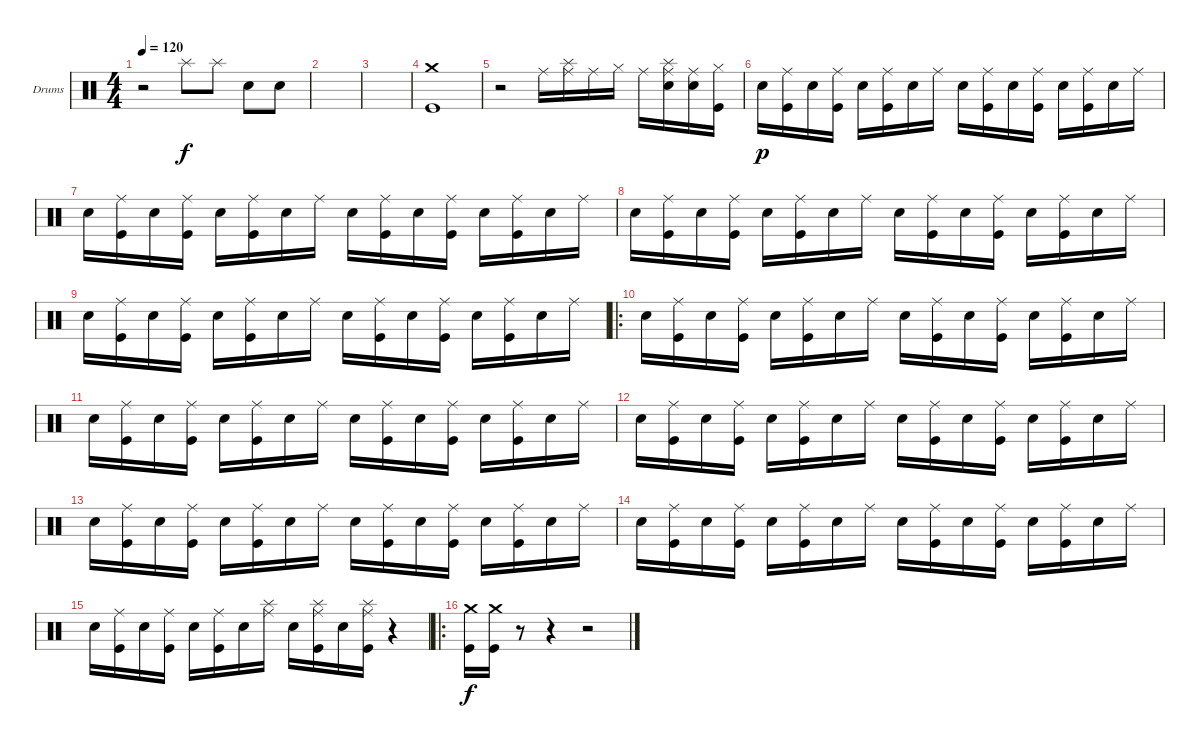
\bracketExtendMode groupsimilarinstruments
\firstSystemTrackNameOrientation horizontal
\otherSystemsTrackNameOrientation horizontal
\track ("Drumkit" "Drums") {instrument percussion}
\staff {score}
\articulation defaults
\ts (4 4)
\tempo 120
\clef neutral
\ks c
r.2{dy f} "Splash (hit)".8 "Splash (hit)".8 "Snare (hit) 2".8 "Snare (hit) 2".8 |
|
|
("Crash medium (hit)" "Kick (hit)").1 |
r.2 "Ride (middle)".16 ("Ride (middle)" "Splash (hit)").16 "Ride (middle)".16 "Hi-Hat (closed)".16 "Ride (middle)".16 ("Ride (middle)" "Snare (hit) 2" "Splash (hit)").16 ("Ride (middle)" "Snare (hit) 2").16 ("Hi-Hat (closed)" "Kick (hit)").16 |
"Snare (hit) 2".16{dy p} ("Ride (middle)" "Kick (hit)").16 "Snare (hit) 2".16 ("Ride (middle)" "Kick (hit)").16 "Snare (hit) 2".16 ("Ride (middle)" "Kick (hit)").16 "Snare (hit) 2".16 "Ride (middle)".16 "Snare (hit) 2".16 ("Ride (middle)" "Kick (hit)").16 "Snare (hit) 2".16 ("Ride (middle)" "Kick (hit)").16 "Snare (hit) 2".16 ("Ride (middle)" "Kick (hit)").16 "Snare (hit) 2".16 "Ride (middle)".16 |
"Snare (hit) 2".16 ("Ride (middle)" "Kick (hit)").16 "Snare (hit) 2".16 ("Ride (middle)" "Kick (hit)").16 "Snare (hit) 2".16 ("Ride (middle)" "Kick (hit)").16 "Snare (hit) 2".16 "Ride (middle)".16 "Snare (hit) 2".16 ("Ride (middle)" "Kick (hit)").16 "Snare (hit) 2".16 ("Ride (middle)" "Kick (hit)").16 "Snare (hit) 2".16 ("Ride (middle)" "Kick (hit)").16 "Snare (hit) 2".16 "Ride (middle)".16 |
"Snare (hit) 2".16 ("Ride (middle)" "Kick (hit)").16 "Snare (hit) 2".16 ("Ride (middle)" "Kick (hit)").16 "Snare (hit) 2".16 ("Ride (middle)" "Kick (hit)").16 "Snare (hit) 2".16 "Ride (middle)".16 "Snare (hit) 2".16 ("Ride (middle)" "Kick (hit)").16 "Snare (hit) 2".16 ("Ride (middle)" "Kick (hit)").16 "Snare (hit) 2".16 ("Ride (middle)" "Kick (hit)").16 "Snare (hit) 2".16 "Ride (middle)".16 |
"Snare (hit) 2".16 ("Ride (middle)" "Kick (hit)").16 "Snare (hit) 2".16 ("Ride (middle)" "Kick (hit)").16 "Snare (hit) 2".16 ("Ride (middle)" "Kick (hit)").16 "Snare (hit) 2".16 "Ride (middle)".16 "Snare (hit) 2".16 ("Ride (middle)" "Kick (hit)").16 "Snare (hit) 2".16 ("Ride (middle)" "Kick (hit)").16 "Snare (hit) 2".16 ("Ride (middle)" "Kick (hit)").16 "Snare (hit) 2".16 "Ride (middle)".16 |
\ro "Snare (hit) 2".16
("Ride (middle)" "Kick (hit)").16 "Snare (hit) 2".16 ("Ride (middle)" "Kick (hit)").16 "Snare (hit) 2".16 ("Ride (middle)" "Kick (hit)").16 "Snare (hit) 2".16 "Ride (middle)".16 "Snare (hit) 2".16 ("Ride (middle)" "Kick (hit)").16 "Snare (hit) 2".16 ("Ride (middle)" "Kick (hit)").16 "Snare (hit) 2".16 ("Ride (middle)" "Kick (hit)").16 "Snare (hit) 2".16 "Ride (middle)".16 |
"Snare (hit) 2".16 ("Ride (middle)" "Kick (hit)").16 "Snare (hit) 2".16 ("Ride (middle)" "Kick (hit)").16 "Snare (hit) 2".16 ("Ride (middle)" "Kick (hit)").16 "Snare (hit) 2".16 "Ride (middle)".16 "Snare (hit) 2".16 ("Ride (middle)" "Kick (hit)").16 "Snare (hit) 2".16 ("Ride (middle)" "Kick (hit)").16 "Snare (hit) 2".16 ("Ride (middle)" "Kick (hit)").16 "Snare (hit) 2".16 "Ride (middle)".16 |
"Snare (hit) 2".16 ("Ride (middle)" "Kick (hit)").16 "Snare (hit) 2".16 ("Ride (middle)" "Kick (hit)").16 "Snare (hit) 2".16 ("Ride (middle)" "Kick (hit)").16 "Snare (hit) 2".16 "Ride (middle)".16 "Snare (hit) 2".16 ("Ride (middle)" "Kick (hit)").16 "Snare (hit) 2".16 ("Ride (middle)" "Kick (hit)").16 "Snare (hit) 2".16 ("Ride (middle)" "Kick (hit)").16 "Snare (hit) 2".16 "Ride (middle)".16 |
"Snare (hit) 2".16 ("Ride (middle)" "Kick (hit)").16 "Snare (hit) 2".16 ("Ride (middle)" "Kick (hit)").16 "Snare (hit) 2".16 ("Ride (middle)" "Kick (hit)").16 "Snare (hit) 2".16 "Ride (middle)".16 "Snare (hit) 2".16 ("Ride (middle)" "Kick (hit)").16 "Snare (hit) 2".16 ("Ride (middle)" "Kick (hit)").16 "Snare (hit) 2".16 ("Ride (middle)" "Kick (hit)").16 "Snare (hit) 2".16 "Ride (middle)".16 |
"Snare (hit) 2".16 ("Ride (middle)" "Kick (hit)").16 "Snare (hit) 2".16 ("Ride (middle)" "Kick (hit)").16 "Snare (hit) 2".16 ("Ride (middle)" "Kick (hit)").16 "Snare (hit) 2".16 "Ride (middle)".16 "Snare (hit) 2".16 ("Ride (middle)" "Kick (hit)").16 "Snare (hit) 2".16 ("Ride (middle)" "Kick (hit)").16 "Snare (hit) 2".16 ("Ride (middle)" "Kick (hit)").16 "Snare (hit) 2".16 "Ride (middle)".16 |
"Snare (hit) 2".16 ("Ride (middle)" "Kick (hit)").16 "Snare (hit) 2".16 ("Ride (middle)" "Kick (hit)").16 "Snare (hit) 2".16 ("Ride (middle)" "Kick (hit)").16 "Snare (hit) 2".16 ("Ride (middle)" "Splash (hit)").16 "Snare (hit) 2".16 ("Ride (middle)" "Kick (hit)" "Splash (hit)").16 "Snare (hit) 2".16 ("Ride (middle)" "Kick (hit)" "Splash (hit)").16 r.4 |
\ro
("Crash medium (hit)" "Kick (hit)").16{dy f} ("Crash medium (hit)" "Kick (hit)").16 r.8 r.4 r.2
